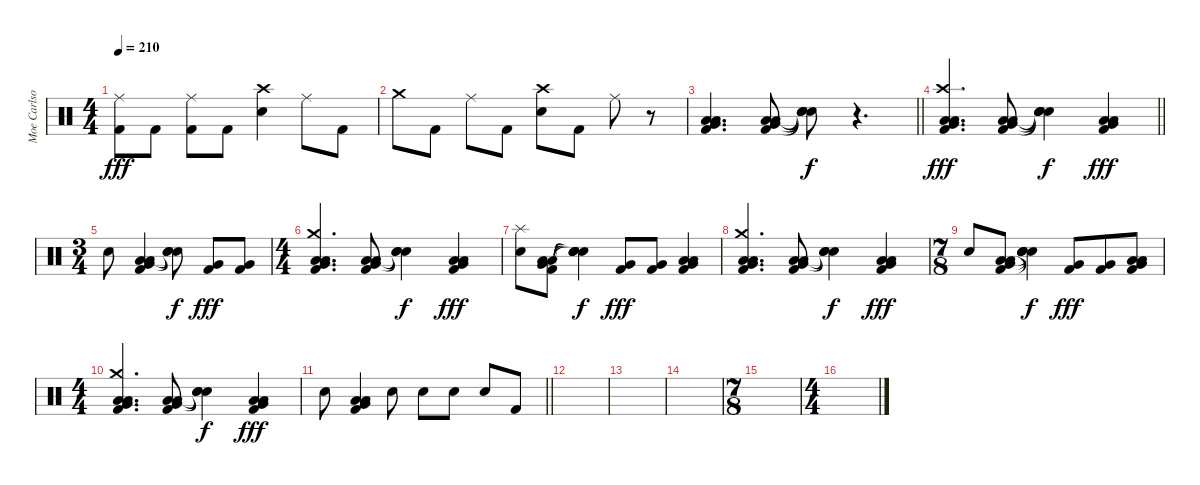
\track ("Moe Carlson" "Moe Carlso") {instrument percussion}
\staff {score}
\articulation defaults
\ts (4 4)
\tempo 210
\clef neutral
\ks c
("Ride (middle)" "Kick (hit) 2").8{dy fff} "Kick (hit) 2".8 ("Ride (middle)" "Kick (hit) 2").8 "Kick (hit) 2".8 ("Crash high (hit)" "Electric Snare (hit)").4 "Ride (middle)".8 "Kick (hit) 2".8 |
"Crash medium (hit)".8 "Kick (hit) 2".8 "Ride (middle)".8 "Kick (hit) 2".8 ("Crash high (hit)" "Electric Snare (hit)").8 "Kick (hit) 2".8 "Ride (middle)".8 r.8 |
\barLineRight lightlight
("Low Tom (hit)" "Low Floor Tom (hit)" "Very Low Tom (hit)" "Kick (hit) 2").4{d} ("Low Tom (hit)" "Low Floor Tom (hit)" "Very Low Tom (hit)" "Kick (hit) 2").8 ("Snare (hit)"{t} "Snare (hit)"{t} "Snare (hit)"{t} "Snare (hit)"{t}).8{dy f} r.4{d} |
\barLineRight lightlight
("Crash high (hit)" "Low Tom (hit)" "Low Floor Tom (hit)" "Very Low Tom (hit)" "Kick (hit) 2").4{d dy fff} ("Low Tom (hit)" "Low Floor Tom (hit)" "Very Low Tom (hit)" "Kick (hit) 2").8 ("Snare (hit)"{t} "Snare (hit)"{t} "Snare (hit)"{t} "Snare (hit)"{t}).4{dy f} ("Low Tom (hit)" "Low Floor Tom (hit)" "Very Low Tom (hit)" "Kick (hit) 2").4{dy fff} |
\ts (3 4)
"Electric Snare (hit)".8 ("Low Tom (hit)" "Low Floor Tom (hit)" "Very Low Tom (hit)" "Kick (hit) 2").4 ("Snare (hit)"{t} "Snare (hit)"{t} "Snare (hit)"{t}).8{dy f} ("Very Low Tom (hit)" "Kick (hit) 2").8{dy fff} ("Very Low Tom (hit)" "Kick (hit) 2").8 |
\ts (4 4)
("Crash medium (hit)" "Low Floor Tom (hit)" "Low Tom (hit)" "Very Low Tom (hit)" "Kick (hit) 2").4{d} ("Low Floor Tom (hit)" "Low Tom (hit)" "Very Low Tom (hit)" "Kick (hit) 2").8 ("Snare (hit)"{t} "Snare (hit)"{t} "Snare (hit)"{t}).4{dy f} ("Low Floor Tom (hit)" "Low Tom (hit)" "Very Low Tom (hit)" "Kick (hit) 2").4{dy fff} |
("Splash (hit)" "Electric Snare (hit)").8 ("Low Floor Tom (hit)" "Low Tom (hit)" "Very Low Tom (hit)" "Kick (hit) 2").8 ("Snare (hit)"{t} "Snare (hit)"{t} "Snare (hit)"{t} "Snare (hit)"{t}).4{dy f} ("Very Low Tom (hit)" "Kick (hit) 2").8{dy fff} ("Very Low Tom (hit)" "Kick (hit) 2").8 ("Low Floor Tom (hit)" "Low Tom (hit)" "Very Low Tom (hit)" "Kick (hit) 2").4 |
("Crash medium (hit)" "Low Floor Tom (hit)" "Low Tom (hit)" "Very Low Tom (hit)" "Kick (hit) 2").4{d} ("Low Floor Tom (hit)" "Low Tom (hit)" "Very Low Tom (hit)" "Kick (hit) 2").8 ("Snare (hit)"{t} "Snare (hit)"{t} "Snare (hit)"{t}).4{dy f} ("Low Floor Tom (hit)" "Low Tom (hit)" "Very Low Tom (hit)" "Kick (hit) 2").4{dy fff} |
\ts (7 8)
"Electric Snare (hit)".8 ("Low Floor Tom (hit)" "Low Tom (hit)" "Very Low Tom (hit)" "Kick (hit) 2").8 ("Snare (hit)"{t} "Snare (hit)"{t} "Snare (hit)"{t} "Snare (hit)"{t}).4{dy f} ("Very Low Tom (hit)" "Kick (hit) 2").8{dy fff} ("Very Low Tom (hit)" "Kick (hit) 2").8 ("Low Floor Tom (hit)" "Low Tom (hit)" "Very Low Tom (hit)" "Kick (hit) 2").8 |
\ts (4 4)
("Crash medium (hit)" "Low Floor Tom (hit)" "Low Tom (hit)" "Very Low Tom (hit)" "Kick (hit) 2").4{d} ("Low Floor Tom (hit)" "Low Tom (hit)" "Very Low Tom (hit)" "Kick (hit) 2").8 ("Snare (hit)"{t} "Snare (hit)"{t} "Snare (hit)"{t}).4{dy f} ("Low Floor Tom (hit)" "Low Tom (hit)" "Very Low Tom (hit)" "Kick (hit) 2").4{dy fff} |
\barLineRight lightlight "Electric Snare (hit)".8
("Low Floor Tom (hit)" "Low Tom (hit)" "Very Low Tom (hit)" "Kick (hit) 2").4 "Electric Snare (hit)".8 "Electric Snare (hit)".8 "Electric Snare (hit)".8 "Electric Snare (hit)".8 "Kick (hit) 2".8 |
|
|
|
\ts (7 8)
|
\ts (4 4)
